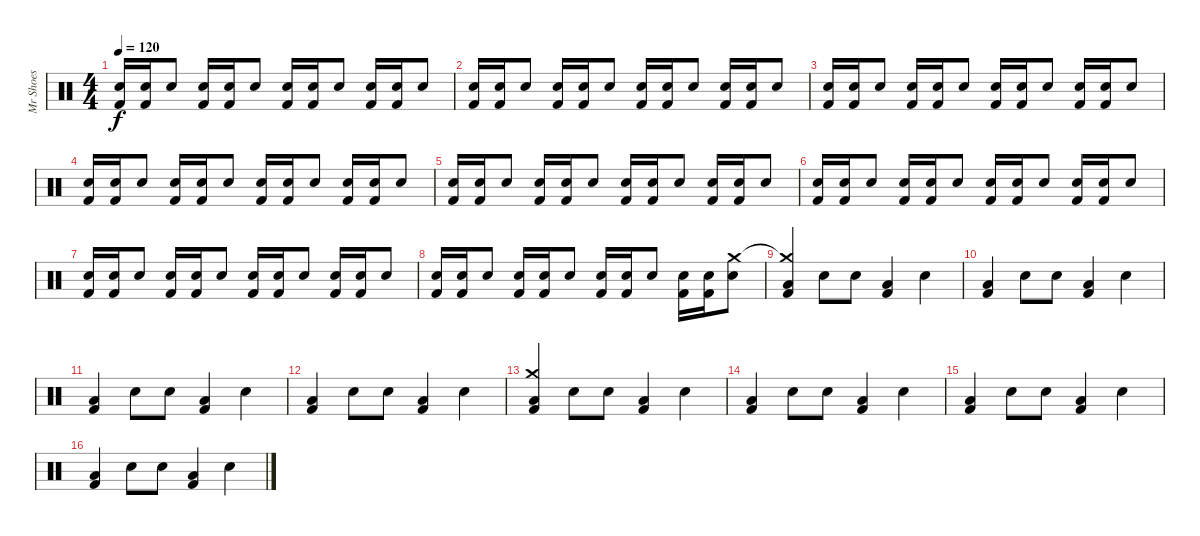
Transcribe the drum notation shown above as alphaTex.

\track ("Mr Shoes" "Mr Shoes") {instrument percussion}
\staff {score}
\articulation defaults
\ts (4 4)
\tempo 120
\clef neutral
\ks c
("Electric Snare (hit)" "Kick (hit) 2").16{dy f} ("Electric Snare (hit)" "Kick (hit) 2").16 "Electric Snare (hit)".8 ("Electric Snare (hit)" "Kick (hit) 2").16 ("Electric Snare (hit)" "Kick (hit) 2").16 "Electric Snare (hit)".8 ("Electric Snare (hit)" "Kick (hit) 2").16 ("Electric Snare (hit)" "Kick (hit) 2").16 "Electric Snare (hit)".8 ("Electric Snare (hit)" "Kick (hit) 2").16 ("Electric Snare (hit)" "Kick (hit) 2").16 "Electric Snare (hit)".8 |
("Electric Snare (hit)" "Kick (hit) 2").16 ("Electric Snare (hit)" "Kick (hit) 2").16 "Electric Snare (hit)".8 ("Electric Snare (hit)" "Kick (hit) 2").16 ("Electric Snare (hit)" "Kick (hit) 2").16 "Electric Snare (hit)".8 ("Electric Snare (hit)" "Kick (hit) 2").16 ("Electric Snare (hit)" "Kick (hit) 2").16 "Electric Snare (hit)".8 ("Electric Snare (hit)" "Kick (hit) 2").16 ("Electric Snare (hit)" "Kick (hit) 2").16 "Electric Snare (hit)".8 |
("Electric Snare (hit)" "Kick (hit) 2").16 ("Electric Snare (hit)" "Kick (hit) 2").16 "Electric Snare (hit)".8 ("Electric Snare (hit)" "Kick (hit) 2").16 ("Electric Snare (hit)" "Kick (hit) 2").16 "Electric Snare (hit)".8 ("Electric Snare (hit)" "Kick (hit) 2").16 ("Electric Snare (hit)" "Kick (hit) 2").16 "Electric Snare (hit)".8 ("Electric Snare (hit)" "Kick (hit) 2").16 ("Electric Snare (hit)" "Kick (hit) 2").16 "Electric Snare (hit)".8 |
("Electric Snare (hit)" "Kick (hit) 2").16 ("Electric Snare (hit)" "Kick (hit) 2").16 "Electric Snare (hit)".8 ("Electric Snare (hit)" "Kick (hit) 2").16 ("Electric Snare (hit)" "Kick (hit) 2").16 "Electric Snare (hit)".8 ("Electric Snare (hit)" "Kick (hit) 2").16 ("Electric Snare (hit)" "Kick (hit) 2").16 "Electric Snare (hit)".8 ("Electric Snare (hit)" "Kick (hit) 2").16 ("Electric Snare (hit)" "Kick (hit) 2").16 "Electric Snare (hit)".8 |
("Electric Snare (hit)" "Kick (hit) 2").16 ("Electric Snare (hit)" "Kick (hit) 2").16 "Electric Snare (hit)".8 ("Electric Snare (hit)" "Kick (hit) 2").16 ("Electric Snare (hit)" "Kick (hit) 2").16 "Electric Snare (hit)".8 ("Electric Snare (hit)" "Kick (hit) 2").16 ("Electric Snare (hit)" "Kick (hit) 2").16 "Electric Snare (hit)".8 ("Electric Snare (hit)" "Kick (hit) 2").16 ("Electric Snare (hit)" "Kick (hit) 2").16 "Electric Snare (hit)".8 |
("Electric Snare (hit)" "Kick (hit) 2").16 ("Electric Snare (hit)" "Kick (hit) 2").16 "Electric Snare (hit)".8 ("Electric Snare (hit)" "Kick (hit) 2").16 ("Electric Snare (hit)" "Kick (hit) 2").16 "Electric Snare (hit)".8 ("Electric Snare (hit)" "Kick (hit) 2").16 ("Electric Snare (hit)" "Kick (hit) 2").16 "Electric Snare (hit)".8 ("Electric Snare (hit)" "Kick (hit) 2").16 ("Electric Snare (hit)" "Kick (hit) 2").16 "Electric Snare (hit)".8 |
("Electric Snare (hit)" "Kick (hit) 2").16 ("Electric Snare (hit)" "Kick (hit) 2").16 "Electric Snare (hit)".8 ("Electric Snare (hit)" "Kick (hit) 2").16 ("Electric Snare (hit)" "Kick (hit) 2").16 "Electric Snare (hit)".8 ("Electric Snare (hit)" "Kick (hit) 2").16 ("Electric Snare (hit)" "Kick (hit) 2").16 "Electric Snare (hit)".8 ("Electric Snare (hit)" "Kick (hit) 2").16 ("Electric Snare (hit)" "Kick (hit) 2").16 "Electric Snare (hit)".8 |
("Electric Snare (hit)" "Kick (hit) 2").16 ("Electric Snare (hit)" "Kick (hit) 2").16 "Electric Snare (hit)".8 ("Electric Snare (hit)" "Kick (hit) 2").16 ("Electric Snare (hit)" "Kick (hit) 2").16 "Electric Snare (hit)".8 ("Electric Snare (hit)" "Kick (hit) 2").16 ("Electric Snare (hit)" "Kick (hit) 2").16 "Electric Snare (hit)".8 ("Electric Snare (hit)" "Kick (hit) 2").16 ("Electric Snare (hit)" "Kick (hit) 2").16 ("Crash medium (hit)" "Electric Snare (hit)").8 |
("Crash medium (hit)"{t} "Kick (hit) 2" "Low Floor Tom (hit)").4 "Electric Snare (hit)".8 "Electric Snare (hit)".8 ("Kick (hit) 2" "Low Floor Tom (hit)").4 "Electric Snare (hit)".4 |
("Kick (hit) 2" "Low Floor Tom (hit)").4 "Electric Snare (hit)".8 "Electric Snare (hit)".8 ("Kick (hit) 2" "Low Floor Tom (hit)").4 "Electric Snare (hit)".4 |
("Kick (hit) 2" "Low Floor Tom (hit)").4 "Electric Snare (hit)".8 "Electric Snare (hit)".8 ("Kick (hit) 2" "Low Floor Tom (hit)").4 "Electric Snare (hit)".4 |
("Kick (hit) 2" "Low Floor Tom (hit)").4 "Electric Snare (hit)".8 "Electric Snare (hit)".8 ("Kick (hit) 2" "Low Floor Tom (hit)").4 "Electric Snare (hit)".4 |
("Crash medium (hit)" "Kick (hit) 2" "Low Floor Tom (hit)").4 "Electric Snare (hit)".8 "Electric Snare (hit)".8 ("Kick (hit) 2" "Low Floor Tom (hit)").4 "Electric Snare (hit)".4 |
("Kick (hit) 2" "Low Floor Tom (hit)").4 "Electric Snare (hit)".8 "Electric Snare (hit)".8 ("Kick (hit) 2" "Low Floor Tom (hit)").4 "Electric Snare (hit)".4 |
("Kick (hit) 2" "Low Floor Tom (hit)").4 "Electric Snare (hit)".8 "Electric Snare (hit)".8 ("Kick (hit) 2" "Low Floor Tom (hit)").4 "Electric Snare (hit)".4 |
("Kick (hit) 2" "Low Floor Tom (hit)").4 "Electric Snare (hit)".8 "Electric Snare (hit)".8 ("Kick (hit) 2" "Low Floor Tom (hit)").4 "Electric Snare (hit)".4
